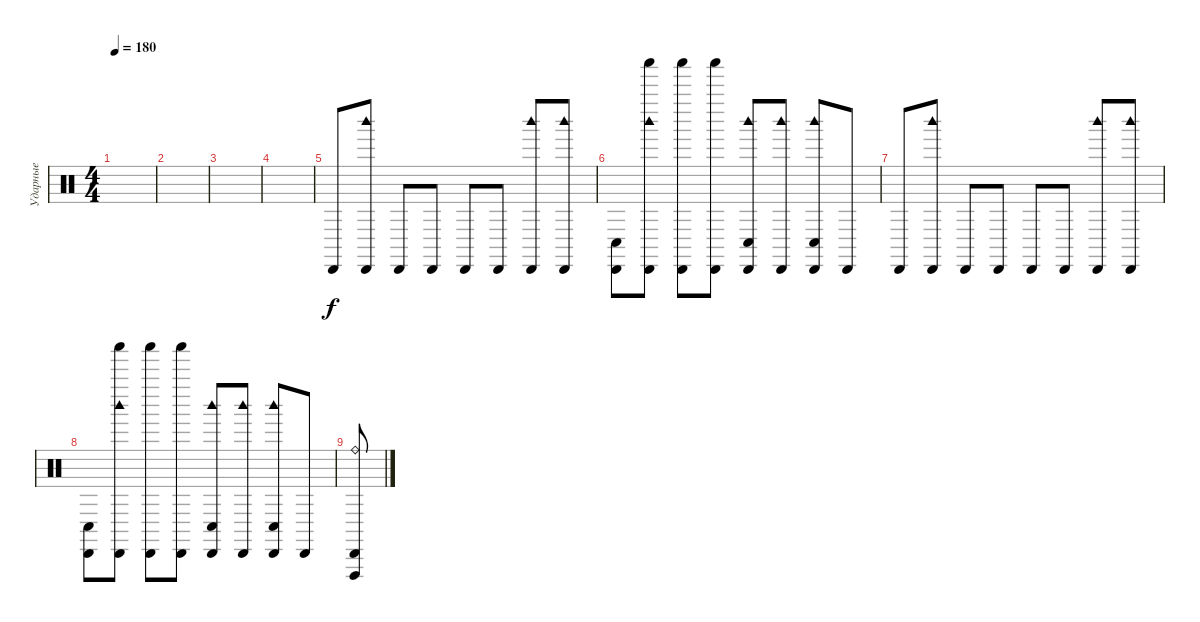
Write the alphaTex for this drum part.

\track ("Ударные" "Ударные") {instrument percussion}
\staff {score}
\articulation defaults
\ts (4 4)
\tempo 180
\clef neutral
\ks c
|
|
|
|
"Cabasa (hit)".8 ("Woodblock high (hit)" "Cabasa (hit)").8 "Cabasa (hit)".8 "Cabasa (hit)".8 "Cabasa (hit)".8 "Cabasa (hit)".8 ("Woodblock high (hit)" "Cabasa (hit)").8 ("Woodblock high (hit)" "Cabasa (hit)").8 |
("Cabasa (hit)" "Conga low (hit)").8 ("Woodblock high (hit)" "Shaker (hit)" "Cabasa (hit)").8 ("Shaker (hit)" "Cabasa (hit)").8 ("Shaker (hit)" "Cabasa (hit)").8 ("Woodblock high (hit)" "Cabasa (hit)" "Conga low (hit)").8 ("Woodblock high (hit)" "Cabasa (hit)").8 ("Woodblock high (hit)" "Cabasa (hit)" "Conga low (hit)").8 "Cabasa (hit)".8 |
"Cabasa (hit)".8 ("Woodblock high (hit)" "Cabasa (hit)").8 "Cabasa (hit)".8 "Cabasa (hit)".8 "Cabasa (hit)".8 "Cabasa (hit)".8 ("Woodblock high (hit)" "Cabasa (hit)").8 ("Woodblock high (hit)" "Cabasa (hit)").8 |
("Cabasa (hit)" "Conga low (hit)").8 ("Woodblock high (hit)" "Shaker (hit)" "Cabasa (hit)").8 ("Shaker (hit)" "Cabasa (hit)").8 ("Shaker (hit)" "Cabasa (hit)").8 ("Woodblock high (hit)" "Cabasa (hit)" "Conga low (hit)").8 ("Woodblock high (hit)" "Cabasa (hit)").8 ("Woodblock high (hit)" "Cabasa (hit)" "Conga low (hit)").8 "Cabasa (hit)".8 |
("Vibraslap (hit)" "Cabasa (hit)" "Ride (bell)").8
